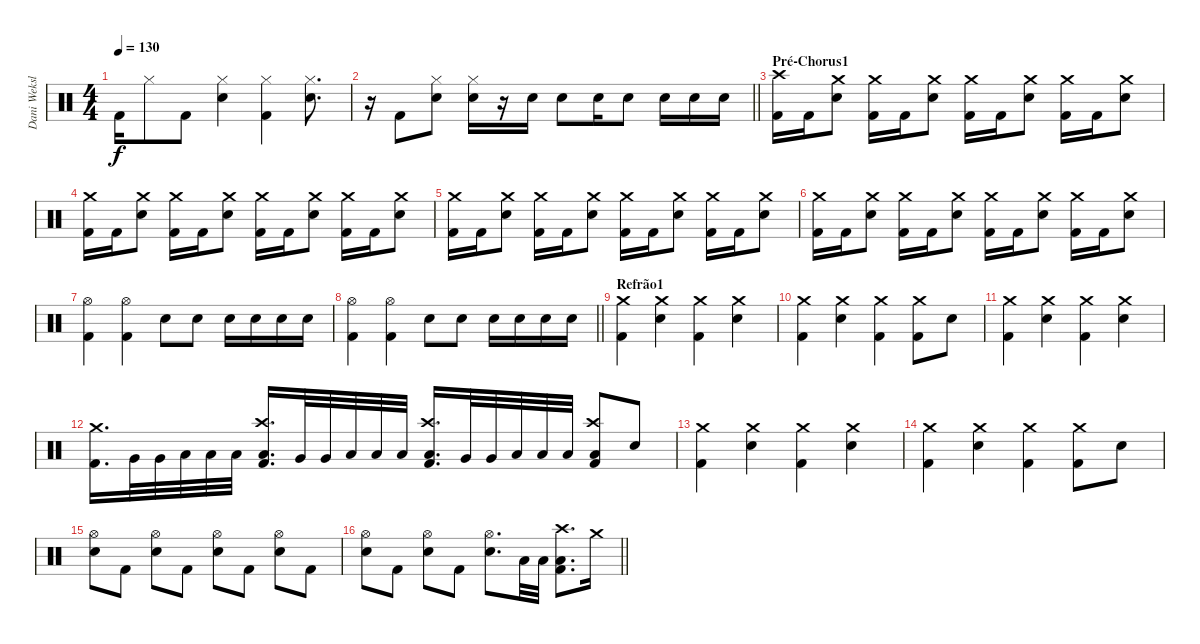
\track ("Dani Weksler(Bateria)" "Dani Weksl") {instrument percussion}
\staff {score}
\articulation defaults
\ts (4 4)
\tempo 130
\clef neutral
\ks c "Kick (hit) 2".16{dy f} "Hi-Hat (closed)".8 "Kick (hit) 2".8
("Hi-Hat (closed)" "Electric Snare (hit)").4 ("Hi-Hat (closed)" "Kick (hit) 2").4 ("Hi-Hat (closed)" "Electric Snare (hit)").8{d} |
\barLineRight lightlight
r.16 "Kick (hit) 2".8 ("Hi-Hat (closed)" "Electric Snare (hit)").8 ("Hi-Hat (closed)" "Electric Snare (hit)").16 r.16 "Electric Snare (hit)".16 "Electric Snare (hit)".8 "Electric Snare (hit)".16 "Electric Snare (hit)".8 "Electric Snare (hit)".16 "Electric Snare (hit)".16 "Electric Snare (hit)".16 |
\section ("" "Pré-Chorus1")
("Crash high (hit)" "Kick (hit) 2").16 "Kick (hit) 2".16 ("Crash medium (hit)" "Electric Snare (hit)").8 ("Crash medium (hit)" "Kick (hit) 2").16 "Kick (hit) 2".16 ("Crash medium (hit)" "Electric Snare (hit)").8 ("Crash medium (hit)" "Kick (hit) 2").16 "Kick (hit) 2".16 ("Crash medium (hit)" "Electric Snare (hit)").8 ("Crash medium (hit)" "Kick (hit) 2").16 "Kick (hit) 2".16 ("Crash medium (hit)" "Electric Snare (hit)").8 |
("Crash medium (hit)" "Kick (hit) 2").16 "Kick (hit) 2".16 ("Crash medium (hit)" "Electric Snare (hit)").8 ("Crash medium (hit)" "Kick (hit) 2").16 "Kick (hit) 2".16 ("Crash medium (hit)" "Electric Snare (hit)").8 ("Crash medium (hit)" "Kick (hit) 2").16 "Kick (hit) 2".16 ("Crash medium (hit)" "Electric Snare (hit)").8 ("Crash medium (hit)" "Kick (hit) 2").16 "Kick (hit) 2".16 ("Crash medium (hit)" "Electric Snare (hit)").8 |
("Crash medium (hit)" "Kick (hit) 2").16 "Kick (hit) 2".16 ("Crash medium (hit)" "Electric Snare (hit)").8 ("Crash medium (hit)" "Kick (hit) 2").16 "Kick (hit) 2".16 ("Crash medium (hit)" "Electric Snare (hit)").8 ("Crash medium (hit)" "Kick (hit) 2").16 "Kick (hit) 2".16 ("Crash medium (hit)" "Electric Snare (hit)").8 ("Crash medium (hit)" "Kick (hit) 2").16 "Kick (hit) 2".16 ("Crash medium (hit)" "Electric Snare (hit)").8 |
("Crash medium (hit)" "Kick (hit) 2").16 "Kick (hit) 2".16 ("Crash medium (hit)" "Electric Snare (hit)").8 ("Crash medium (hit)" "Kick (hit) 2").16 "Kick (hit) 2".16 ("Crash medium (hit)" "Electric Snare (hit)").8 ("Crash medium (hit)" "Kick (hit) 2").16 "Kick (hit) 2".16 ("Crash medium (hit)" "Electric Snare (hit)").8 ("Crash medium (hit)" "Kick (hit) 2").16 "Kick (hit) 2".16 ("Crash medium (hit)" "Electric Snare (hit)").8 |
("Hi-Hat (open)" "Kick (hit) 2").4 ("Hi-Hat (open)" "Kick (hit) 2").4 "Electric Snare (hit)".8 "Electric Snare (hit)".8 "Electric Snare (hit)".16 "Electric Snare (hit)".16 "Electric Snare (hit)".16 "Electric Snare (hit)".16 |
\barLineRight lightlight
("Hi-Hat (open)" "Kick (hit) 2").4 ("Hi-Hat (open)" "Kick (hit) 2").4 "Electric Snare (hit)".8 "Electric Snare (hit)".8 "Electric Snare (hit)".16 "Electric Snare (hit)".16 "Electric Snare (hit)".16 "Electric Snare (hit)".16 |
\section ("" "Refrão1")
("Crash medium (hit)" "Kick (hit) 2").4 ("Crash medium (hit)" "Electric Snare (hit)").4 ("Crash medium (hit)" "Kick (hit) 2").4 ("Crash medium (hit)" "Electric Snare (hit)").4 |
("Crash medium (hit)" "Kick (hit) 2").4 ("Crash medium (hit)" "Electric Snare (hit)").4 ("Crash medium (hit)" "Kick (hit) 2").4 ("Crash medium (hit)" "Kick (hit) 2").8 "Electric Snare (hit)".8 |
("Crash medium (hit)" "Kick (hit) 2").4 ("Crash medium (hit)" "Electric Snare (hit)").4 ("Crash medium (hit)" "Kick (hit) 2").4 ("Crash medium (hit)" "Electric Snare (hit)").4 |
("Crash medium (hit)" "Kick (hit) 2").16{d} "Very Low Tom (hit)".32 "Very Low Tom (hit)".32 "Low Floor Tom (hit)".32 "Low Floor Tom (hit)".32 "Low Floor Tom (hit)".32 ("Crash high (hit)" "Low Floor Tom (hit)" "Kick (hit) 2").16{d} "Very Low Tom (hit)".32 "Very Low Tom (hit)".32 "Low Floor Tom (hit)".32 "Low Floor Tom (hit)".32 "Low Floor Tom (hit)".32 ("Crash high (hit)" "Low Floor Tom (hit)" "Kick (hit) 2").16{d} "Very Low Tom (hit)".32 "Very Low Tom (hit)".32 "Low Floor Tom (hit)".32 "Low Floor Tom (hit)".32 "Low Floor Tom (hit)".32 ("Crash high (hit)" "Low Floor Tom (hit)" "Kick (hit) 2").8 "Electric Snare (hit)".8 |
("Crash medium (hit)" "Kick (hit) 2").4 ("Crash medium (hit)" "Electric Snare (hit)").4 ("Crash medium (hit)" "Kick (hit) 2").4 ("Crash medium (hit)" "Electric Snare (hit)").4 |
("Crash medium (hit)" "Kick (hit) 2").4 ("Crash medium (hit)" "Electric Snare (hit)").4 ("Crash medium (hit)" "Kick (hit) 2").4 ("Crash medium (hit)" "Kick (hit) 2").8 "Electric Snare (hit)".8 |
("Hi-Hat (open)" "Electric Snare (hit)").8 "Kick (hit) 2".8 ("Hi-Hat (open)" "Electric Snare (hit)").8 "Kick (hit) 2".8 ("Hi-Hat (open)" "Electric Snare (hit)").8 "Kick (hit) 2".8 ("Hi-Hat (open)" "Electric Snare (hit)").8 "Kick (hit) 2".8 |
\barLineRight lightlight
("Hi-Hat (open)" "Electric Snare (hit)").8 "Kick (hit) 2".8 ("Hi-Hat (open)" "Electric Snare (hit)").8 "Kick (hit) 2".8 ("Hi-Hat (open)" "Electric Snare (hit)").8{d} "Low Floor Tom (hit)".32 "Low Floor Tom (hit)".32 ("Crash high (hit)" "Low Floor Tom (hit)" "Kick (hit) 2").8{d} "Crash medium (hit)".16
